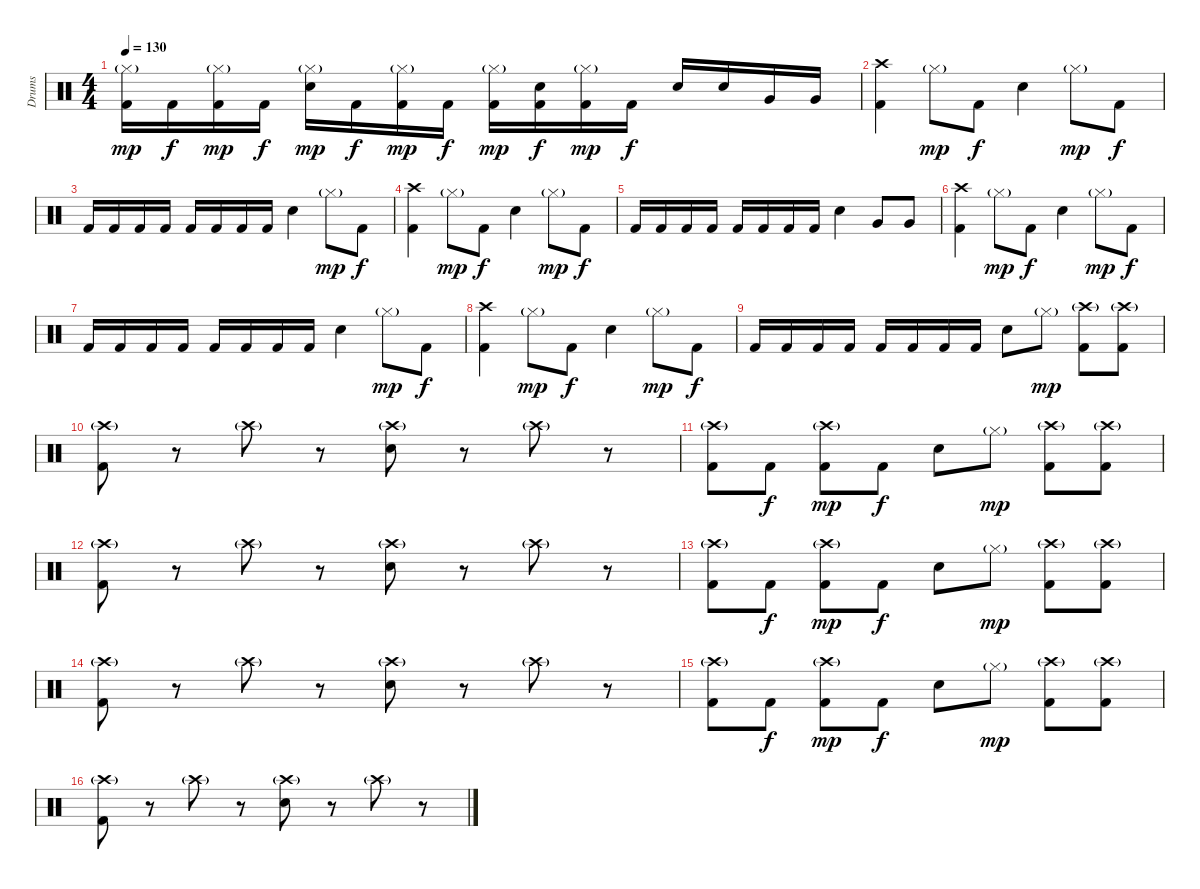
\track ("Drums" "Drums") {instrument percussion}
\staff {score}
\articulation defaults
\ts (4 4)
\tempo 130
\clef neutral
\ks c
("Hi-Hat (closed)"{g} "Kick (hit) 2").16{dy mp} "Kick (hit) 2".16{dy f} ("Hi-Hat (closed)"{g} "Kick (hit) 2").16{dy mp} "Kick (hit) 2".16{dy f} ("Snare (hit) 2" "Hi-Hat (closed)"{g}).16{dy mp} "Kick (hit) 2".16{dy f} ("Hi-Hat (closed)"{g} "Kick (hit) 2").16{dy mp} "Kick (hit) 2".16{dy f} ("Hi-Hat (closed)"{g} "Kick (hit) 2").16{dy mp} ("Snare (hit) 2" "Kick (hit) 2").16{dy f} ("Hi-Hat (closed)"{g} "Kick (hit) 2").16{dy mp} "Kick (hit) 2".16{dy f} "Snare (hit) 2".16 "Snare (hit) 2".16 "Very Low Tom (hit)".16 "Very Low Tom (hit)".16 |
("Crash high (hit)" "Kick (hit) 2").4 "Hi-Hat (closed)"{g}.8{dy mp} "Kick (hit) 2".8{dy f} "Snare (hit) 2".4 "Hi-Hat (closed)"{g}.8{dy mp} "Kick (hit) 2".8{dy f} |
"Kick (hit) 2".16 "Kick (hit) 2".16 "Kick (hit) 2".16 "Kick (hit) 2".16 "Kick (hit) 2".16 "Kick (hit) 2".16 "Kick (hit) 2".16 "Kick (hit) 2".16 "Snare (hit) 2".4 "Hi-Hat (closed)"{g}.8{dy mp} "Kick (hit) 2".8{dy f} |
("Crash high (hit)" "Kick (hit) 2").4 "Hi-Hat (closed)"{g}.8{dy mp} "Kick (hit) 2".8{dy f} "Snare (hit) 2".4 "Hi-Hat (closed)"{g}.8{dy mp} "Kick (hit) 2".8{dy f} |
"Kick (hit) 2".16 "Kick (hit) 2".16 "Kick (hit) 2".16 "Kick (hit) 2".16 "Kick (hit) 2".16 "Kick (hit) 2".16 "Kick (hit) 2".16 "Kick (hit) 2".16 "Snare (hit) 2".4 "Very Low Tom (hit)".8 "Very Low Tom (hit)".8 |
("Crash high (hit)" "Kick (hit) 2").4 "Hi-Hat (closed)"{g}.8{dy mp} "Kick (hit) 2".8{dy f} "Snare (hit) 2".4 "Hi-Hat (closed)"{g}.8{dy mp} "Kick (hit) 2".8{dy f} |
"Kick (hit) 2".16 "Kick (hit) 2".16 "Kick (hit) 2".16 "Kick (hit) 2".16 "Kick (hit) 2".16 "Kick (hit) 2".16 "Kick (hit) 2".16 "Kick (hit) 2".16 "Snare (hit) 2".4 "Hi-Hat (closed)"{g}.8{dy mp} "Kick (hit) 2".8{dy f} |
("Crash high (hit)" "Kick (hit) 2").4 "Hi-Hat (closed)"{g}.8{dy mp} "Kick (hit) 2".8{dy f} "Snare (hit) 2".4 "Hi-Hat (closed)"{g}.8{dy mp} "Kick (hit) 2".8{dy f} |
"Kick (hit) 2".16 "Kick (hit) 2".16 "Kick (hit) 2".16 "Kick (hit) 2".16 "Kick (hit) 2".16 "Kick (hit) 2".16 "Kick (hit) 2".16 "Kick (hit) 2".16 "Snare (hit) 2".8 "Hi-Hat (closed)"{g}.8{dy mp} ("Crash high (hit)"{g} "Kick (hit) 2").8 ("Crash high (hit)"{g} "Kick (hit) 2").8 |
("Crash high (hit)"{g} "Kick (hit) 2").8 r.8 "Crash high (hit)"{g}.8 r.8 ("Snare (hit) 2" "Crash high (hit)"{g}).8 r.8 "Crash high (hit)"{g}.8 r.8 |
("Crash high (hit)"{g} "Kick (hit) 2").8 "Kick (hit) 2".8{dy f} ("Crash high (hit)"{g} "Kick (hit) 2").8{dy mp} "Kick (hit) 2".8{dy f} "Snare (hit) 2".8 "Hi-Hat (closed)"{g}.8{dy mp} ("Crash high (hit)"{g} "Kick (hit) 2").8 ("Crash high (hit)"{g} "Kick (hit) 2").8 |
("Crash high (hit)"{g} "Kick (hit) 2").8 r.8 "Crash high (hit)"{g}.8 r.8 ("Snare (hit) 2" "Crash high (hit)"{g}).8 r.8 "Crash high (hit)"{g}.8 r.8 |
("Crash high (hit)"{g} "Kick (hit) 2").8 "Kick (hit) 2".8{dy f} ("Crash high (hit)"{g} "Kick (hit) 2").8{dy mp} "Kick (hit) 2".8{dy f} "Snare (hit) 2".8 "Hi-Hat (closed)"{g}.8{dy mp} ("Crash high (hit)"{g} "Kick (hit) 2").8 ("Crash high (hit)"{g} "Kick (hit) 2").8 |
("Crash high (hit)"{g} "Kick (hit) 2").8 r.8 "Crash high (hit)"{g}.8 r.8 ("Snare (hit) 2" "Crash high (hit)"{g}).8 r.8 "Crash high (hit)"{g}.8 r.8 |
("Crash high (hit)"{g} "Kick (hit) 2").8 "Kick (hit) 2".8{dy f} ("Crash high (hit)"{g} "Kick (hit) 2").8{dy mp} "Kick (hit) 2".8{dy f} "Snare (hit) 2".8 "Hi-Hat (closed)"{g}.8{dy mp} ("Crash high (hit)"{g} "Kick (hit) 2").8 ("Crash high (hit)"{g} "Kick (hit) 2").8 |
("Crash high (hit)"{g} "Kick (hit) 2").8 r.8 "Crash high (hit)"{g}.8 r.8 ("Snare (hit) 2" "Crash high (hit)"{g}).8 r.8 "Crash high (hit)"{g}.8 r.8
